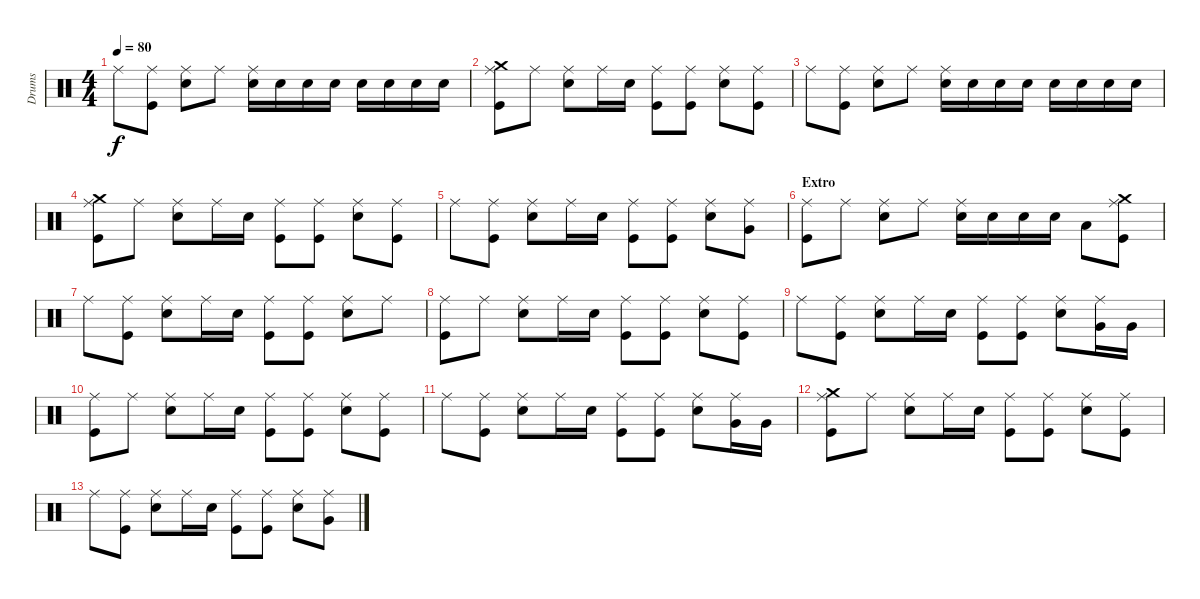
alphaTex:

\track ("Drums" "Drums") {instrument percussion}
\staff {score}
\articulation defaults
\ts (4 4)
\tempo 80
\clef neutral
\ks c "Ride (middle)".8{dy f}
("Ride (middle)" "Kick (hit)").8 ("Ride (middle)" "Snare (hit) 2").8 "Ride (middle)".8 ("Ride (middle)" "Snare (hit) 2").16 "Snare (hit) 2".16 "Snare (hit) 2".16 "Snare (hit) 2".16 "Snare (hit) 2".16 "Snare (hit) 2".16 "Snare (hit) 2".16 "Snare (hit) 2".16 |
("Ride (middle)" "Crash medium (hit)" "Kick (hit)").8 "Ride (middle)".8 ("Ride (middle)" "Snare (hit) 2").8 "Ride (middle)".16 "Snare (hit) 2".16 ("Ride (middle)" "Kick (hit)").8 ("Ride (middle)" "Kick (hit)").8 ("Ride (middle)" "Snare (hit) 2").8 ("Ride (middle)" "Kick (hit)").8 |
"Ride (middle)".8 ("Ride (middle)" "Kick (hit)").8 ("Ride (middle)" "Snare (hit) 2").8 "Ride (middle)".8 ("Ride (middle)" "Snare (hit) 2").16 "Snare (hit) 2".16 "Snare (hit) 2".16 "Snare (hit) 2".16 "Snare (hit) 2".16 "Snare (hit) 2".16 "Snare (hit) 2".16 "Snare (hit) 2".16 |
("Ride (middle)" "Crash medium (hit)" "Kick (hit)").8 "Ride (middle)".8 ("Ride (middle)" "Snare (hit) 2").8 "Ride (middle)".16 "Snare (hit) 2".16 ("Ride (middle)" "Kick (hit)").8 ("Ride (middle)" "Kick (hit)").8 ("Ride (middle)" "Snare (hit) 2").8 ("Ride (middle)" "Kick (hit)").8 |
"Ride (middle)".8 ("Ride (middle)" "Kick (hit)").8 ("Ride (middle)" "Snare (hit) 2").8 "Ride (middle)".16 "Snare (hit) 2".16 ("Ride (middle)" "Kick (hit)").8 ("Ride (middle)" "Kick (hit)").8 ("Ride (middle)" "Snare (hit) 2").8 ("Ride (middle)" "Very Low Tom (hit)").8 |
\section ("" "Extro")
("Ride (middle)" "Kick (hit)").8 "Ride (middle)".8 ("Ride (middle)" "Snare (hit) 2").8 "Ride (middle)".8 ("Ride (middle)" "Snare (hit) 2").16 "Snare (hit) 2".16 "Snare (hit) 2".16 "Snare (hit) 2".16 "Low Tom (hit)".8 ("Ride (middle)" "Crash medium (hit)" "Kick (hit)").8 |
"Ride (middle)".8 ("Ride (middle)" "Kick (hit)").8 ("Ride (middle)" "Snare (hit) 2").8 "Ride (middle)".16 "Snare (hit) 2".16 ("Ride (middle)" "Kick (hit)").8 ("Ride (middle)" "Kick (hit)").8 ("Ride (middle)" "Snare (hit) 2").8 "Ride (middle)".8 |
("Ride (middle)" "Kick (hit)").8 "Ride (middle)".8 ("Ride (middle)" "Snare (hit) 2").8 "Ride (middle)".16 "Snare (hit) 2".16 ("Ride (middle)" "Kick (hit)").8 ("Ride (middle)" "Kick (hit)").8 ("Ride (middle)" "Snare (hit) 2").8 ("Ride (middle)" "Kick (hit)").8 |
"Ride (middle)".8 ("Ride (middle)" "Kick (hit)").8 ("Ride (middle)" "Snare (hit) 2").8 "Ride (middle)".16 "Snare (hit) 2".16 ("Ride (middle)" "Kick (hit)").8 ("Ride (middle)" "Kick (hit)").8 ("Ride (middle)" "Snare (hit) 2").8 ("Ride (middle)" "Very Low Tom (hit)").16 "Very Low Tom (hit)".16 |
("Ride (middle)" "Kick (hit)").8 "Ride (middle)".8 ("Ride (middle)" "Snare (hit) 2").8 "Ride (middle)".16 "Snare (hit) 2".16 ("Ride (middle)" "Kick (hit)").8 ("Ride (middle)" "Kick (hit)").8 ("Ride (middle)" "Snare (hit) 2").8 ("Ride (middle)" "Kick (hit)").8 |
"Ride (middle)".8 ("Ride (middle)" "Kick (hit)").8 ("Ride (middle)" "Snare (hit) 2").8 "Ride (middle)".16 "Snare (hit) 2".16 ("Ride (middle)" "Kick (hit)").8 ("Ride (middle)" "Kick (hit)").8 ("Ride (middle)" "Snare (hit) 2").8 ("Ride (middle)" "Very Low Tom (hit)").16 "Very Low Tom (hit)".16 |
("Ride (middle)" "Crash medium (hit)" "Kick (hit)").8 "Ride (middle)".8 ("Ride (middle)" "Snare (hit) 2").8 "Ride (middle)".16 "Snare (hit) 2".16 ("Ride (middle)" "Kick (hit)").8 ("Ride (middle)" "Kick (hit)").8 ("Ride (middle)" "Snare (hit) 2").8 ("Ride (middle)" "Kick (hit)").8 |
"Ride (middle)".8 ("Ride (middle)" "Kick (hit)").8 ("Ride (middle)" "Snare (hit) 2").8 "Ride (middle)".16 "Snare (hit) 2".16 ("Ride (middle)" "Kick (hit)").8 ("Ride (middle)" "Kick (hit)").8 ("Ride (middle)" "Snare (hit) 2").8 ("Ride (middle)" "Very Low Tom (hit)").8
